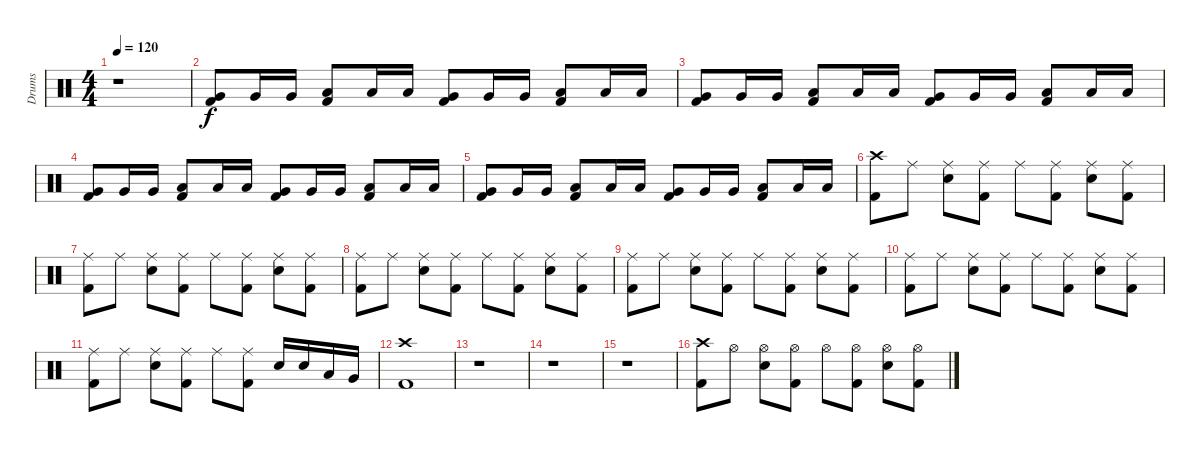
\track ("Drums" "Drums") {instrument percussion}
\staff {score}
\articulation defaults
\ts (4 4)
\tempo 120
\clef neutral
\ks c
r.1{dy f} |
("Very Low Tom (hit)" "Kick (hit) 2").8 "Very Low Tom (hit)".16 "Very Low Tom (hit)".16 ("Low Tom (hit)" "Kick (hit) 2").8 "Low Tom (hit)".16 "Low Tom (hit)".16 ("Very Low Tom (hit)" "Kick (hit) 2").8 "Very Low Tom (hit)".16 "Very Low Tom (hit)".16 ("Low Tom (hit)" "Kick (hit) 2").8 "Low Tom (hit)".16 "Low Tom (hit)".16 |
("Very Low Tom (hit)" "Kick (hit) 2").8 "Very Low Tom (hit)".16 "Very Low Tom (hit)".16 ("Low Tom (hit)" "Kick (hit) 2").8 "Low Tom (hit)".16 "Low Tom (hit)".16 ("Very Low Tom (hit)" "Kick (hit) 2").8 "Very Low Tom (hit)".16 "Very Low Tom (hit)".16 ("Low Tom (hit)" "Kick (hit) 2").8 "Low Tom (hit)".16 "Low Tom (hit)".16 |
("Very Low Tom (hit)" "Kick (hit) 2").8 "Very Low Tom (hit)".16 "Very Low Tom (hit)".16 ("Low Tom (hit)" "Kick (hit) 2").8 "Low Tom (hit)".16 "Low Tom (hit)".16 ("Very Low Tom (hit)" "Kick (hit) 2").8 "Very Low Tom (hit)".16 "Very Low Tom (hit)".16 ("Low Tom (hit)" "Kick (hit) 2").8 "Low Tom (hit)".16 "Low Tom (hit)".16 |
("Very Low Tom (hit)" "Kick (hit) 2").8 "Very Low Tom (hit)".16 "Very Low Tom (hit)".16 ("Low Tom (hit)" "Kick (hit) 2").8 "Low Tom (hit)".16 "Low Tom (hit)".16 ("Very Low Tom (hit)" "Kick (hit) 2").8 "Very Low Tom (hit)".16 "Very Low Tom (hit)".16 ("Low Tom (hit)" "Kick (hit) 2").8 "Low Tom (hit)".16 "Low Tom (hit)".16 |
("Crash high (hit)" "Kick (hit) 2").8 "Ride (middle)".8 ("Ride (middle)" "Electric Snare (hit)").8 ("Ride (middle)" "Kick (hit) 2").8 "Ride (middle)".8 ("Ride (middle)" "Kick (hit) 2").8 ("Ride (middle)" "Electric Snare (hit)").8 ("Ride (middle)" "Kick (hit) 2").8 |
("Ride (middle)" "Kick (hit) 2").8 "Ride (middle)".8 ("Ride (middle)" "Electric Snare (hit)").8 ("Ride (middle)" "Kick (hit) 2").8 "Ride (middle)".8 ("Ride (middle)" "Kick (hit) 2").8 ("Ride (middle)" "Electric Snare (hit)").8 ("Ride (middle)" "Kick (hit) 2").8 |
("Ride (middle)" "Kick (hit) 2").8 "Ride (middle)".8 ("Ride (middle)" "Electric Snare (hit)").8 ("Ride (middle)" "Kick (hit) 2").8 "Ride (middle)".8 ("Ride (middle)" "Kick (hit) 2").8 ("Ride (middle)" "Electric Snare (hit)").8 ("Ride (middle)" "Kick (hit) 2").8 |
("Ride (middle)" "Kick (hit) 2").8 "Ride (middle)".8 ("Ride (middle)" "Electric Snare (hit)").8 ("Ride (middle)" "Kick (hit) 2").8 "Ride (middle)".8 ("Ride (middle)" "Kick (hit) 2").8 ("Ride (middle)" "Electric Snare (hit)").8 ("Ride (middle)" "Kick (hit) 2").8 |
("Ride (middle)" "Kick (hit) 2").8 "Ride (middle)".8 ("Ride (middle)" "Electric Snare (hit)").8 ("Ride (middle)" "Kick (hit) 2").8 "Ride (middle)".8 ("Ride (middle)" "Kick (hit) 2").8 ("Ride (middle)" "Electric Snare (hit)").8 ("Ride (middle)" "Kick (hit) 2").8 |
("Ride (middle)" "Kick (hit) 2").8 "Ride (middle)".8 ("Ride (middle)" "Electric Snare (hit)").8 ("Ride (middle)" "Kick (hit) 2").8 "Ride (middle)".8 ("Ride (middle)" "Kick (hit) 2").8 "Electric Snare (hit)".16 "Electric Snare (hit)".16 "Low Tom (hit)".16 "Very Low Tom (hit)".16 |
("Crash high (hit)" "Kick (hit) 2").1 |
r.1 |
r.1 |
r.1 |
("Crash high (hit)" "Kick (hit) 2").8 "Hi-Hat (open)".8 ("Hi-Hat (open)" "Electric Snare (hit)").8 ("Hi-Hat (open)" "Kick (hit) 2").8 "Hi-Hat (open)".8 ("Hi-Hat (open)" "Kick (hit) 2").8 ("Hi-Hat (open)" "Electric Snare (hit)").8 ("Hi-Hat (open)" "Kick (hit) 2").8
